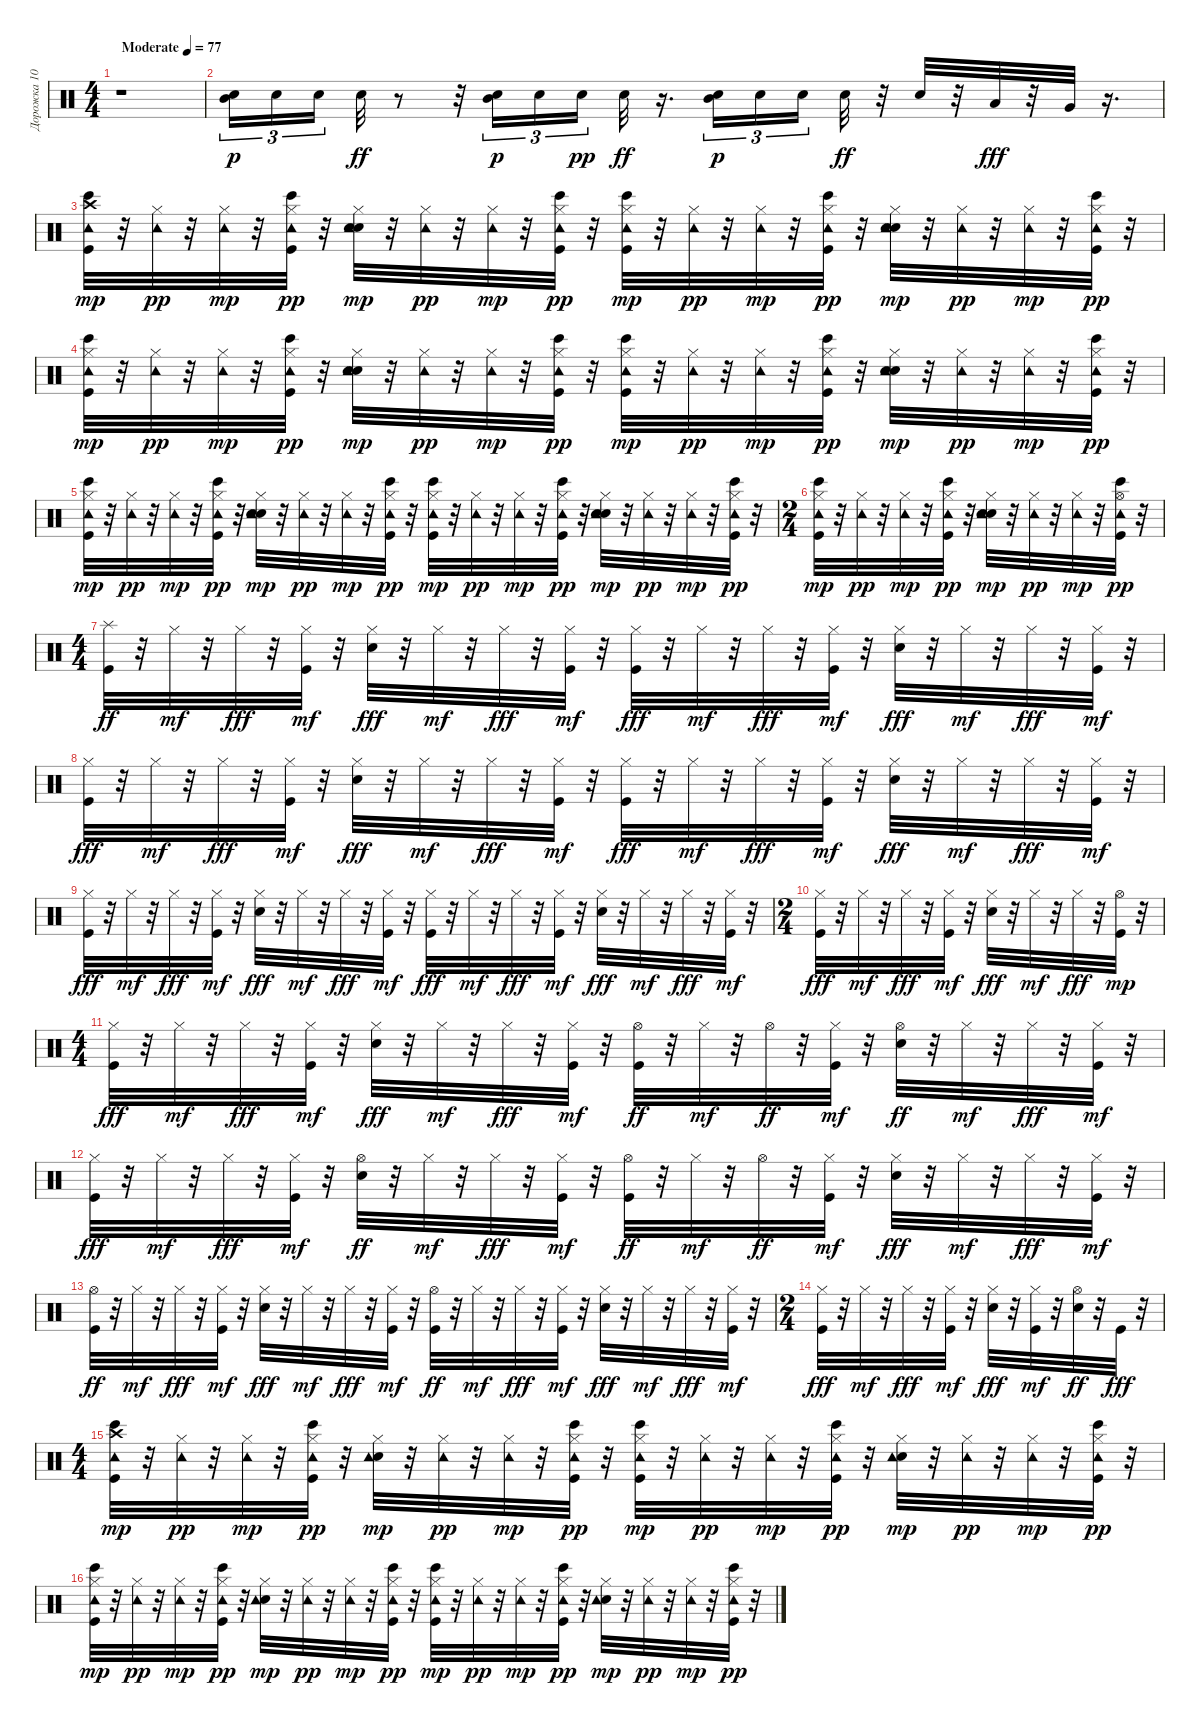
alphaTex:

\track ("Дорожка 10" "Дорожка 10") {instrument percussion}
\staff {score}
\articulation defaults
\ts (4 4)
\tempo (77 "Moderate")
\clef neutral
\ks c
r.1{dy p} |
("Snare (hit) 2" "Mid Tom (hit)").16{tu (3 2)} "Snare (hit) 2".16{tu (3 2)} "Snare (hit) 2".16{tu (3 2) beam splitsecondary} "Snare (hit) 2".32{dy ff} r.8 r.32 ("Snare (hit) 2" "Mid Tom (hit)").16{tu (3 2) dy p} "Snare (hit) 2".16{tu (3 2)} "Snare (hit) 2".16{tu (3 2) dy pp beam splitsecondary} "Snare (hit) 2".32{dy ff} r.16{d} ("Snare (hit) 2" "Mid Tom (hit)").16{tu (3 2) dy p} "Snare (hit) 2".16{tu (3 2)} "Snare (hit) 2".16{tu (3 2) beam splitsecondary} "Snare (hit) 2".32{dy ff} r.32 "Snare (hit) 2".32 r.32 "Low Tom (hit)".32{dy fff} r.32 "Very Low Tom (hit)".32 r.16{d} |
("Bongo High (hit)" "Kick (hit)" "Crash high (hit)" "Tambourine (hit)").32{dy mp} r.32 ("Hi-Hat (closed)" "Tambourine (hit)").32{dy pp} r.32 ("Hi-Hat (closed)" "Tambourine (hit)").32{dy mp} r.32 ("Bongo High (hit)" "Kick (hit)" "Hi-Hat (closed)" "Tambourine (hit)").32{dy pp} r.32 ("Snare (hit) 2" "Hand Clap (hit)" "Hi-Hat (closed)" "Tambourine (hit)").32{dy mp} r.32 ("Hi-Hat (closed)" "Tambourine (hit)").32{dy pp} r.32 ("Hi-Hat (closed)" "Tambourine (hit)").32{dy mp} r.32 ("Bongo High (hit)" "Kick (hit)" "Hi-Hat (closed)" "Tambourine (hit)").32{dy pp} r.32 ("Bongo High (hit)" "Kick (hit)" "Hi-Hat (closed)" "Tambourine (hit)").32{dy mp} r.32 ("Hi-Hat (closed)" "Tambourine (hit)").32{dy pp} r.32 ("Hi-Hat (closed)" "Tambourine (hit)").32{dy mp} r.32 ("Bongo High (hit)" "Kick (hit)" "Hi-Hat (closed)" "Tambourine (hit)").32{dy pp} r.32 ("Snare (hit) 2" "Hand Clap (hit)" "Hi-Hat (closed)" "Tambourine (hit)").32{dy mp} r.32 ("Hi-Hat (closed)" "Tambourine (hit)").32{dy pp} r.32 ("Hi-Hat (closed)" "Tambourine (hit)").32{dy mp} r.32 ("Bongo High (hit)" "Kick (hit)" "Hi-Hat (closed)" "Tambourine (hit)").32{dy pp} r.32 |
("Bongo High (hit)" "Kick (hit)" "Hi-Hat (closed)" "Tambourine (hit)").32{dy mp} r.32 ("Hi-Hat (closed)" "Tambourine (hit)").32{dy pp} r.32 ("Hi-Hat (closed)" "Tambourine (hit)").32{dy mp} r.32 ("Bongo High (hit)" "Kick (hit)" "Hi-Hat (closed)" "Tambourine (hit)").32{dy pp} r.32 ("Snare (hit) 2" "Hand Clap (hit)" "Hi-Hat (closed)" "Tambourine (hit)").32{dy mp} r.32 ("Hi-Hat (closed)" "Tambourine (hit)").32{dy pp} r.32 ("Hi-Hat (closed)" "Tambourine (hit)").32{dy mp} r.32 ("Bongo High (hit)" "Kick (hit)" "Hi-Hat (closed)" "Tambourine (hit)").32{dy pp} r.32 ("Bongo High (hit)" "Kick (hit)" "Hi-Hat (closed)" "Tambourine (hit)").32{dy mp} r.32 ("Hi-Hat (closed)" "Tambourine (hit)").32{dy pp} r.32 ("Hi-Hat (closed)" "Tambourine (hit)").32{dy mp} r.32 ("Bongo High (hit)" "Kick (hit)" "Hi-Hat (closed)" "Tambourine (hit)").32{dy pp} r.32 ("Snare (hit) 2" "Hand Clap (hit)" "Hi-Hat (closed)" "Tambourine (hit)").32{dy mp} r.32 ("Hi-Hat (closed)" "Tambourine (hit)").32{dy pp} r.32 ("Hi-Hat (closed)" "Tambourine (hit)").32{dy mp} r.32 ("Bongo High (hit)" "Kick (hit)" "Hi-Hat (closed)" "Tambourine (hit)").32{dy pp} r.32 |
("Bongo High (hit)" "Kick (hit)" "Hi-Hat (closed)" "Tambourine (hit)").32{dy mp} r.32 ("Hi-Hat (closed)" "Tambourine (hit)").32{dy pp} r.32 ("Hi-Hat (closed)" "Tambourine (hit)").32{dy mp} r.32 ("Bongo High (hit)" "Kick (hit)" "Hi-Hat (closed)" "Tambourine (hit)").32{dy pp} r.32 ("Snare (hit) 2" "Hand Clap (hit)" "Hi-Hat (closed)" "Tambourine (hit)").32{dy mp} r.32 ("Hi-Hat (closed)" "Tambourine (hit)").32{dy pp} r.32 ("Hi-Hat (closed)" "Tambourine (hit)").32{dy mp} r.32 ("Bongo High (hit)" "Kick (hit)" "Hi-Hat (closed)" "Tambourine (hit)").32{dy pp} r.32 ("Bongo High (hit)" "Kick (hit)" "Hi-Hat (closed)" "Tambourine (hit)").32{dy mp} r.32 ("Hi-Hat (closed)" "Tambourine (hit)").32{dy pp} r.32 ("Hi-Hat (closed)" "Tambourine (hit)").32{dy mp} r.32 ("Bongo High (hit)" "Kick (hit)" "Hi-Hat (closed)" "Tambourine (hit)").32{dy pp} r.32 ("Snare (hit) 2" "Hand Clap (hit)" "Hi-Hat (closed)" "Tambourine (hit)").32{dy mp} r.32 ("Hi-Hat (closed)" "Tambourine (hit)").32{dy pp} r.32 ("Hi-Hat (closed)" "Tambourine (hit)").32{dy mp} r.32 ("Bongo High (hit)" "Kick (hit)" "Hi-Hat (closed)" "Tambourine (hit)").32{dy pp} r.32 |
\ts (2 4)
("Bongo High (hit)" "Kick (hit)" "Hi-Hat (closed)" "Tambourine (hit)").32{dy mp} r.32 ("Hi-Hat (closed)" "Tambourine (hit)").32{dy pp} r.32 ("Hi-Hat (closed)" "Tambourine (hit)").32{dy mp} r.32 ("Bongo High (hit)" "Kick (hit)" "Hi-Hat (closed)" "Tambourine (hit)").32{dy pp} r.32 ("Snare (hit) 2" "Hand Clap (hit)" "Hi-Hat (closed)" "Tambourine (hit)").32{dy mp} r.32 ("Hi-Hat (closed)" "Tambourine (hit)").32{dy pp} r.32 ("Hi-Hat (closed)" "Tambourine (hit)").32{dy mp} r.32 ("Bongo High (hit)" "Kick (hit)" "Hi-Hat (open)" "Tambourine (hit)").32{dy pp} r.32 |
\ts (4 4)
("Kick (hit)" "Splash (hit)").32{dy ff} r.32 "Hi-Hat (closed)".32{dy mf} r.32 "Hi-Hat (closed)".32{dy fff} r.32 ("Kick (hit)" "Hi-Hat (closed)").32{dy mf} r.32 ("Snare (hit) 2" "Hi-Hat (closed)").32{dy fff} r.32 "Hi-Hat (closed)".32{dy mf} r.32 "Hi-Hat (closed)".32{dy fff} r.32 ("Kick (hit)" "Hi-Hat (closed)").32{dy mf} r.32 ("Kick (hit)" "Hi-Hat (closed)").32{dy fff} r.32 "Hi-Hat (closed)".32{dy mf} r.32 "Hi-Hat (closed)".32{dy fff} r.32 ("Kick (hit)" "Hi-Hat (closed)").32{dy mf} r.32 ("Snare (hit) 2" "Hi-Hat (closed)").32{dy fff} r.32 "Hi-Hat (closed)".32{dy mf} r.32 "Hi-Hat (closed)".32{dy fff} r.32 ("Kick (hit)" "Hi-Hat (closed)").32{dy mf} r.32 |
("Kick (hit)" "Hi-Hat (closed)").32{dy fff} r.32 "Hi-Hat (closed)".32{dy mf} r.32 "Hi-Hat (closed)".32{dy fff} r.32 ("Kick (hit)" "Hi-Hat (closed)").32{dy mf} r.32 ("Snare (hit) 2" "Hi-Hat (closed)").32{dy fff} r.32 "Hi-Hat (closed)".32{dy mf} r.32 "Hi-Hat (closed)".32{dy fff} r.32 ("Kick (hit)" "Hi-Hat (closed)").32{dy mf} r.32 ("Kick (hit)" "Hi-Hat (closed)").32{dy fff} r.32 "Hi-Hat (closed)".32{dy mf} r.32 "Hi-Hat (closed)".32{dy fff} r.32 ("Kick (hit)" "Hi-Hat (closed)").32{dy mf} r.32 ("Snare (hit) 2" "Hi-Hat (closed)").32{dy fff} r.32 "Hi-Hat (closed)".32{dy mf} r.32 "Hi-Hat (closed)".32{dy fff} r.32 ("Kick (hit)" "Hi-Hat (closed)").32{dy mf} r.32 |
("Kick (hit)" "Hi-Hat (closed)").32{dy fff} r.32 "Hi-Hat (closed)".32{dy mf} r.32 "Hi-Hat (closed)".32{dy fff} r.32 ("Kick (hit)" "Hi-Hat (closed)").32{dy mf} r.32 ("Snare (hit) 2" "Hi-Hat (closed)").32{dy fff} r.32 "Hi-Hat (closed)".32{dy mf} r.32 "Hi-Hat (closed)".32{dy fff} r.32 ("Kick (hit)" "Hi-Hat (closed)").32{dy mf} r.32 ("Kick (hit)" "Hi-Hat (closed)").32{dy fff} r.32 "Hi-Hat (closed)".32{dy mf} r.32 "Hi-Hat (closed)".32{dy fff} r.32 ("Kick (hit)" "Hi-Hat (closed)").32{dy mf} r.32 ("Snare (hit) 2" "Hi-Hat (closed)").32{dy fff} r.32 "Hi-Hat (closed)".32{dy mf} r.32 "Hi-Hat (closed)".32{dy fff} r.32 ("Kick (hit)" "Hi-Hat (closed)").32{dy mf} r.32 |
\ts (2 4)
("Kick (hit)" "Hi-Hat (closed)").32{dy fff} r.32 "Hi-Hat (closed)".32{dy mf} r.32 "Hi-Hat (closed)".32{dy fff} r.32 ("Kick (hit)" "Hi-Hat (closed)").32{dy mf} r.32 ("Snare (hit) 2" "Hi-Hat (closed)").32{dy fff} r.32 "Hi-Hat (closed)".32{dy mf} r.32 "Hi-Hat (closed)".32{dy fff} r.32 ("Kick (hit)" "Hi-Hat (open)").32{dy mp} r.32 |
\ts (4 4)
("Kick (hit)" "Hi-Hat (closed)").32{dy fff} r.32 "Hi-Hat (closed)".32{dy mf} r.32 "Hi-Hat (closed)".32{dy fff} r.32 ("Kick (hit)" "Hi-Hat (closed)").32{dy mf} r.32 ("Snare (hit) 2" "Hi-Hat (closed)").32{dy fff} r.32 "Hi-Hat (closed)".32{dy mf} r.32 "Hi-Hat (closed)".32{dy fff} r.32 ("Kick (hit)" "Hi-Hat (closed)").32{dy mf} r.32 ("Kick (hit)" "Hi-Hat (open)").32{dy ff} r.32 "Hi-Hat (closed)".32{dy mf} r.32 "Hi-Hat (open)".32{dy ff} r.32 ("Kick (hit)" "Hi-Hat (closed)").32{dy mf} r.32 ("Snare (hit) 2" "Hi-Hat (open)").32{dy ff} r.32 "Hi-Hat (closed)".32{dy mf} r.32 "Hi-Hat (closed)".32{dy fff} r.32 ("Kick (hit)" "Hi-Hat (closed)").32{dy mf} r.32 |
("Kick (hit)" "Hi-Hat (closed)").32{dy fff} r.32 "Hi-Hat (closed)".32{dy mf} r.32 "Hi-Hat (closed)".32{dy fff} r.32 ("Kick (hit)" "Hi-Hat (closed)").32{dy mf} r.32 ("Snare (hit) 2" "Hi-Hat (open)").32{dy ff} r.32 "Hi-Hat (closed)".32{dy mf} r.32 "Hi-Hat (closed)".32{dy fff} r.32 ("Kick (hit)" "Hi-Hat (closed)").32{dy mf} r.32 ("Kick (hit)" "Hi-Hat (open)").32{dy ff} r.32 "Hi-Hat (closed)".32{dy mf} r.32 "Hi-Hat (open)".32{dy ff} r.32 ("Kick (hit)" "Hi-Hat (closed)").32{dy mf} r.32 ("Snare (hit) 2" "Hi-Hat (closed)").32{dy fff} r.32 "Hi-Hat (closed)".32{dy mf} r.32 "Hi-Hat (closed)".32{dy fff} r.32 ("Kick (hit)" "Hi-Hat (closed)").32{dy mf} r.32 |
("Kick (hit)" "Hi-Hat (open)").32{dy ff} r.32 "Hi-Hat (closed)".32{dy mf} r.32 "Hi-Hat (closed)".32{dy fff} r.32 ("Kick (hit)" "Hi-Hat (closed)").32{dy mf} r.32 ("Snare (hit) 2" "Hi-Hat (closed)").32{dy fff} r.32 "Hi-Hat (closed)".32{dy mf} r.32 "Hi-Hat (closed)".32{dy fff} r.32 ("Kick (hit)" "Hi-Hat (closed)").32{dy mf} r.32 ("Kick (hit)" "Hi-Hat (open)").32{dy ff} r.32 "Hi-Hat (closed)".32{dy mf} r.32 "Hi-Hat (closed)".32{dy fff} r.32 ("Kick (hit)" "Hi-Hat (closed)").32{dy mf} r.32 ("Snare (hit) 2" "Hi-Hat (closed)").32{dy fff} r.32 "Hi-Hat (closed)".32{dy mf} r.32 "Hi-Hat (closed)".32{dy fff} r.32 ("Kick (hit)" "Hi-Hat (closed)").32{dy mf} r.32 |
\ts (2 4)
("Kick (hit)" "Hi-Hat (closed)").32{dy fff} r.32 "Hi-Hat (closed)".32{dy mf} r.32 "Hi-Hat (closed)".32{dy fff} r.32 ("Kick (hit)" "Hi-Hat (closed)").32{dy mf} r.32 ("Snare (hit) 2" "Hi-Hat (closed)").32{dy fff} r.32 ("Kick (hit)" "Hi-Hat (closed)").32{dy mf} r.32 ("Snare (hit) 2" "Hi-Hat (open)").32{dy ff} r.32 "Kick (hit)".32{dy fff} r.32 |
\ts (4 4)
("Bongo High (hit)" "Kick (hit)" "Crash high (hit)" "Tambourine (hit)").32{dy mp} r.32 ("Hi-Hat (closed)" "Tambourine (hit)").32{dy pp} r.32 ("Hi-Hat (closed)" "Tambourine (hit)").32{dy mp} r.32 ("Bongo High (hit)" "Kick (hit)" "Hi-Hat (closed)" "Tambourine (hit)").32{dy pp} r.32 ("Snare (hit) 2" "Hi-Hat (closed)" "Tambourine (hit)").32{dy mp} r.32 ("Hi-Hat (closed)" "Tambourine (hit)").32{dy pp} r.32 ("Hi-Hat (closed)" "Tambourine (hit)").32{dy mp} r.32 ("Bongo High (hit)" "Kick (hit)" "Hi-Hat (closed)" "Tambourine (hit)").32{dy pp} r.32 ("Bongo High (hit)" "Kick (hit)" "Hi-Hat (closed)" "Tambourine (hit)").32{dy mp} r.32 ("Hi-Hat (closed)" "Tambourine (hit)").32{dy pp} r.32 ("Hi-Hat (closed)" "Tambourine (hit)").32{dy mp} r.32 ("Bongo High (hit)" "Kick (hit)" "Hi-Hat (closed)" "Tambourine (hit)").32{dy pp} r.32 ("Snare (hit) 2" "Hi-Hat (closed)" "Tambourine (hit)").32{dy mp} r.32 ("Hi-Hat (closed)" "Tambourine (hit)").32{dy pp} r.32 ("Hi-Hat (closed)" "Tambourine (hit)").32{dy mp} r.32 ("Bongo High (hit)" "Kick (hit)" "Hi-Hat (closed)" "Tambourine (hit)").32{dy pp} r.32 |
("Bongo High (hit)" "Kick (hit)" "Hi-Hat (closed)" "Tambourine (hit)").32{dy mp} r.32 ("Hi-Hat (closed)" "Tambourine (hit)").32{dy pp} r.32 ("Hi-Hat (closed)" "Tambourine (hit)").32{dy mp} r.32 ("Bongo High (hit)" "Kick (hit)" "Hi-Hat (closed)" "Tambourine (hit)").32{dy pp} r.32 ("Snare (hit) 2" "Hi-Hat (closed)" "Tambourine (hit)").32{dy mp} r.32 ("Hi-Hat (closed)" "Tambourine (hit)").32{dy pp} r.32 ("Hi-Hat (closed)" "Tambourine (hit)").32{dy mp} r.32 ("Bongo High (hit)" "Kick (hit)" "Hi-Hat (closed)" "Tambourine (hit)").32{dy pp} r.32 ("Bongo High (hit)" "Kick (hit)" "Hi-Hat (closed)" "Tambourine (hit)").32{dy mp} r.32 ("Hi-Hat (closed)" "Tambourine (hit)").32{dy pp} r.32 ("Hi-Hat (closed)" "Tambourine (hit)").32{dy mp} r.32 ("Bongo High (hit)" "Kick (hit)" "Hi-Hat (closed)" "Tambourine (hit)").32{dy pp} r.32 ("Snare (hit) 2" "Hi-Hat (closed)" "Tambourine (hit)").32{dy mp} r.32 ("Hi-Hat (closed)" "Tambourine (hit)").32{dy pp} r.32 ("Hi-Hat (closed)" "Tambourine (hit)").32{dy mp} r.32 ("Bongo High (hit)" "Kick (hit)" "Hi-Hat (closed)" "Tambourine (hit)").32{dy pp} r.32
